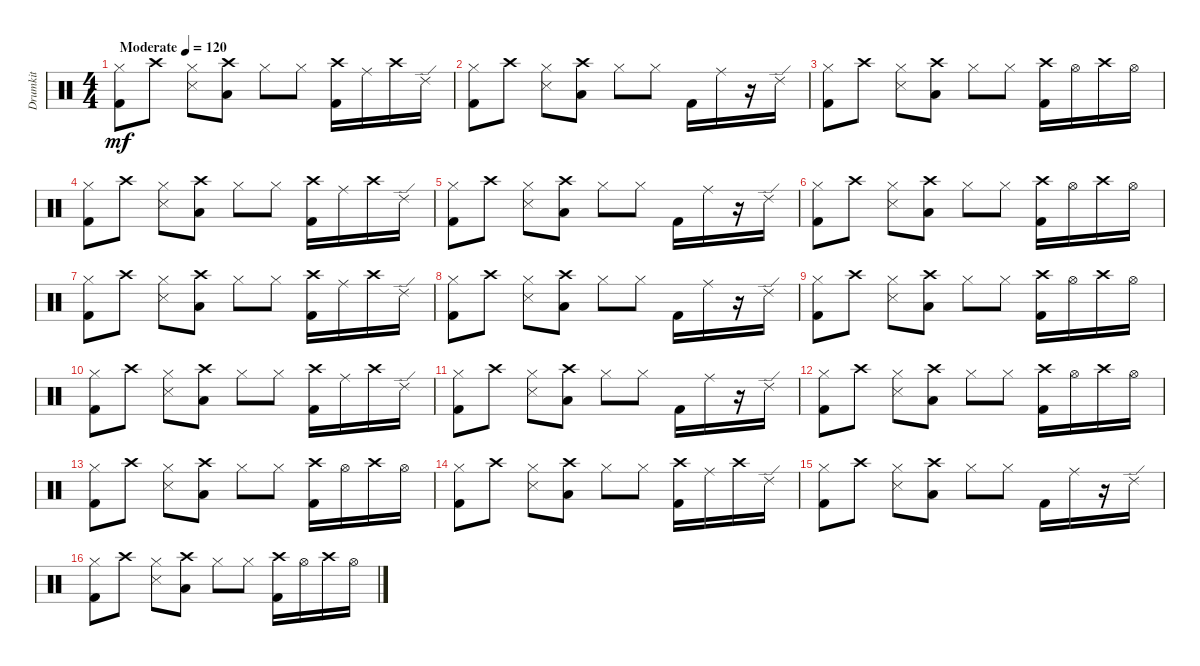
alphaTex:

\track ("Drumkit" "Drumkit") {instrument percussion}
\staff {score}
\articulation defaults
\ts (4 4)
\tempo (120 "Moderate")
\clef neutral
\ks c
("Hi-Hat (closed)" "Kick (hit) 2").8{dy mf} "Crash high (hit)".8 ("Hi-Hat (closed)" "Snare (side stick) 3").8 ("Crash high (hit)" "Low Floor Tom (hit)").8 "Hi-Hat (closed)".8 "Hi-Hat (closed)".8 ("Crash high (hit)" "Kick (hit) 2").16 "Ride (middle)".16 "Crash high (hit)".16 "Ride (edge) 2".16 |
("Hi-Hat (closed)" "Kick (hit) 2").8 "Crash high (hit)".8 ("Hi-Hat (closed)" "Snare (side stick) 3").8 ("Crash high (hit)" "Low Floor Tom (hit)").8 "Hi-Hat (closed)".8 "Hi-Hat (closed)".8 "Kick (hit) 2".16 "Ride (middle)".16 r.16 "Ride (edge) 2".16 |
("Hi-Hat (closed)" "Kick (hit) 2").8 "Crash high (hit)".8 ("Hi-Hat (closed)" "Snare (side stick) 3").8 ("Crash high (hit)" "Low Floor Tom (hit)").8 "Hi-Hat (closed)".8 "Hi-Hat (closed)".8 ("Crash high (hit)" "Kick (hit) 2").16 "Hi-Hat (open)".16 "Crash high (hit)".16 "Hi-Hat (open)".16 |
("Hi-Hat (closed)" "Kick (hit) 2").8 "Crash high (hit)".8 ("Hi-Hat (closed)" "Snare (side stick) 3").8 ("Crash high (hit)" "Low Floor Tom (hit)").8 "Hi-Hat (closed)".8 "Hi-Hat (closed)".8 ("Crash high (hit)" "Kick (hit) 2").16 "Ride (middle)".16 "Crash high (hit)".16 "Ride (edge) 2".16 |
("Hi-Hat (closed)" "Kick (hit) 2").8 "Crash high (hit)".8 ("Hi-Hat (closed)" "Snare (side stick) 3").8 ("Crash high (hit)" "Low Floor Tom (hit)").8 "Hi-Hat (closed)".8 "Hi-Hat (closed)".8 "Kick (hit) 2".16 "Ride (middle)".16 r.16 "Ride (edge) 2".16 |
("Hi-Hat (closed)" "Kick (hit) 2").8 "Crash high (hit)".8 ("Hi-Hat (closed)" "Snare (side stick) 3").8 ("Crash high (hit)" "Low Floor Tom (hit)").8 "Hi-Hat (closed)".8 "Hi-Hat (closed)".8 ("Crash high (hit)" "Kick (hit) 2").16 "Hi-Hat (open)".16 "Crash high (hit)".16 "Hi-Hat (open)".16 |
("Hi-Hat (closed)" "Kick (hit) 2").8 "Crash high (hit)".8 ("Hi-Hat (closed)" "Snare (side stick) 3").8 ("Crash high (hit)" "Low Floor Tom (hit)").8 "Hi-Hat (closed)".8 "Hi-Hat (closed)".8 ("Crash high (hit)" "Kick (hit) 2").16 "Ride (middle)".16 "Crash high (hit)".16 "Ride (edge) 2".16 |
("Hi-Hat (closed)" "Kick (hit) 2").8 "Crash high (hit)".8 ("Hi-Hat (closed)" "Snare (side stick) 3").8 ("Crash high (hit)" "Low Floor Tom (hit)").8 "Hi-Hat (closed)".8 "Hi-Hat (closed)".8 "Kick (hit) 2".16 "Ride (middle)".16 r.16 "Ride (edge) 2".16 |
("Hi-Hat (closed)" "Kick (hit) 2").8 "Crash high (hit)".8 ("Hi-Hat (closed)" "Snare (side stick) 3").8 ("Crash high (hit)" "Low Floor Tom (hit)").8 "Hi-Hat (closed)".8 "Hi-Hat (closed)".8 ("Crash high (hit)" "Kick (hit) 2").16 "Hi-Hat (open)".16 "Crash high (hit)".16 "Hi-Hat (open)".16 |
("Hi-Hat (closed)" "Kick (hit) 2").8 "Crash high (hit)".8 ("Hi-Hat (closed)" "Snare (side stick) 3").8 ("Crash high (hit)" "Low Floor Tom (hit)").8 "Hi-Hat (closed)".8 "Hi-Hat (closed)".8 ("Crash high (hit)" "Kick (hit) 2").16 "Ride (middle)".16 "Crash high (hit)".16 "Ride (edge) 2".16 |
("Hi-Hat (closed)" "Kick (hit) 2").8 "Crash high (hit)".8 ("Hi-Hat (closed)" "Snare (side stick) 3").8 ("Crash high (hit)" "Low Floor Tom (hit)").8 "Hi-Hat (closed)".8 "Hi-Hat (closed)".8 "Kick (hit) 2".16 "Ride (middle)".16 r.16 "Ride (edge) 2".16 |
("Hi-Hat (closed)" "Kick (hit) 2").8 "Crash high (hit)".8 ("Hi-Hat (closed)" "Snare (side stick) 3").8 ("Crash high (hit)" "Low Floor Tom (hit)").8 "Hi-Hat (closed)".8 "Hi-Hat (closed)".8 ("Crash high (hit)" "Kick (hit) 2").16 "Hi-Hat (open)".16 "Crash high (hit)".16 "Hi-Hat (open)".16 |
("Hi-Hat (closed)" "Kick (hit) 2").8 "Crash high (hit)".8 ("Hi-Hat (closed)" "Snare (side stick) 3").8 ("Crash high (hit)" "Low Floor Tom (hit)").8 "Hi-Hat (closed)".8 "Hi-Hat (closed)".8 ("Crash high (hit)" "Kick (hit) 2").16 "Hi-Hat (open)".16 "Crash high (hit)".16 "Hi-Hat (open)".16 |
("Hi-Hat (closed)" "Kick (hit) 2").8 "Crash high (hit)".8 ("Hi-Hat (closed)" "Snare (side stick) 3").8 ("Crash high (hit)" "Low Floor Tom (hit)").8 "Hi-Hat (closed)".8 "Hi-Hat (closed)".8 ("Crash high (hit)" "Kick (hit) 2").16 "Ride (middle)".16 "Crash high (hit)".16 "Ride (edge) 2".16 |
("Hi-Hat (closed)" "Kick (hit) 2").8 "Crash high (hit)".8 ("Hi-Hat (closed)" "Snare (side stick) 3").8 ("Crash high (hit)" "Low Floor Tom (hit)").8 "Hi-Hat (closed)".8 "Hi-Hat (closed)".8 "Kick (hit) 2".16 "Ride (middle)".16 r.16 "Ride (edge) 2".16 |
("Hi-Hat (closed)" "Kick (hit) 2").8 "Crash high (hit)".8 ("Hi-Hat (closed)" "Snare (side stick) 3").8 ("Crash high (hit)" "Low Floor Tom (hit)").8 "Hi-Hat (closed)".8 "Hi-Hat (closed)".8 ("Crash high (hit)" "Kick (hit) 2").16 "Hi-Hat (open)".16 "Crash high (hit)".16 "Hi-Hat (open)".16
